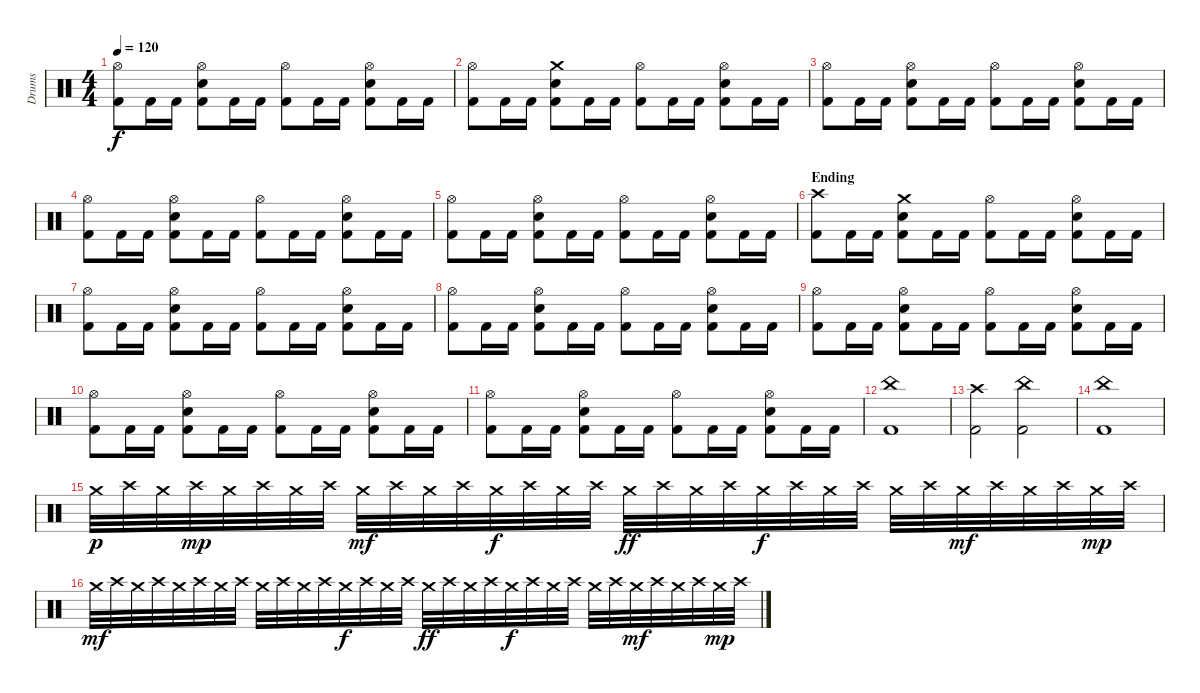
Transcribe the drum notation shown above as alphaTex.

\track ("Drums" "Drums") {instrument percussion}
\staff {score}
\articulation defaults
\ts (4 4)
\tempo 120
\clef neutral
\ks c
("Hi-Hat (open)" "Kick (hit) 2").8{dy f} "Kick (hit) 2".16 "Kick (hit) 2".16 ("Hi-Hat (open)" "Snare (hit) 2" "Kick (hit) 2").8 "Kick (hit) 2".16 "Kick (hit) 2".16 ("Hi-Hat (open)" "Kick (hit) 2").8 "Kick (hit) 2".16 "Kick (hit) 2".16 ("Hi-Hat (open)" "Snare (hit) 2" "Kick (hit) 2").8 "Kick (hit) 2".16 "Kick (hit) 2".16 |
("Hi-Hat (open)" "Kick (hit) 2").8 "Kick (hit) 2".16 "Kick (hit) 2".16 ("Crash medium (hit)" "Snare (hit) 2" "Kick (hit) 2").8 "Kick (hit) 2".16 "Kick (hit) 2".16 ("Hi-Hat (open)" "Kick (hit) 2").8 "Kick (hit) 2".16 "Kick (hit) 2".16 ("Hi-Hat (open)" "Snare (hit) 2" "Kick (hit) 2").8 "Kick (hit) 2".16 "Kick (hit) 2".16 |
("Hi-Hat (open)" "Kick (hit) 2").8 "Kick (hit) 2".16 "Kick (hit) 2".16 ("Hi-Hat (open)" "Snare (hit) 2" "Kick (hit) 2").8 "Kick (hit) 2".16 "Kick (hit) 2".16 ("Hi-Hat (open)" "Kick (hit) 2").8 "Kick (hit) 2".16 "Kick (hit) 2".16 ("Hi-Hat (open)" "Snare (hit) 2" "Kick (hit) 2").8 "Kick (hit) 2".16 "Kick (hit) 2".16 |
("Hi-Hat (open)" "Kick (hit) 2").8 "Kick (hit) 2".16 "Kick (hit) 2".16 ("Hi-Hat (open)" "Snare (hit) 2" "Kick (hit) 2").8 "Kick (hit) 2".16 "Kick (hit) 2".16 ("Hi-Hat (open)" "Kick (hit) 2").8 "Kick (hit) 2".16 "Kick (hit) 2".16 ("Hi-Hat (open)" "Snare (hit) 2" "Kick (hit) 2").8 "Kick (hit) 2".16 "Kick (hit) 2".16 |
("Hi-Hat (open)" "Kick (hit) 2").8 "Kick (hit) 2".16 "Kick (hit) 2".16 ("Hi-Hat (open)" "Snare (hit) 2" "Kick (hit) 2").8 "Kick (hit) 2".16 "Kick (hit) 2".16 ("Hi-Hat (open)" "Kick (hit) 2").8 "Kick (hit) 2".16 "Kick (hit) 2".16 ("Hi-Hat (open)" "Snare (hit) 2" "Kick (hit) 2").8 "Kick (hit) 2".16 "Kick (hit) 2".16 |
\section ("" "Ending")
("Crash high (hit)" "Kick (hit) 2").8 "Kick (hit) 2".16 "Kick (hit) 2".16 ("Crash medium (hit)" "Snare (hit) 2" "Kick (hit) 2").8 "Kick (hit) 2".16 "Kick (hit) 2".16 ("Hi-Hat (open)" "Kick (hit) 2").8 "Kick (hit) 2".16 "Kick (hit) 2".16 ("Hi-Hat (open)" "Snare (hit) 2" "Kick (hit) 2").8 "Kick (hit) 2".16 "Kick (hit) 2".16 |
("Hi-Hat (open)" "Kick (hit) 2").8 "Kick (hit) 2".16 "Kick (hit) 2".16 ("Hi-Hat (open)" "Snare (hit) 2" "Kick (hit) 2").8 "Kick (hit) 2".16 "Kick (hit) 2".16 ("Hi-Hat (open)" "Kick (hit) 2").8 "Kick (hit) 2".16 "Kick (hit) 2".16 ("Hi-Hat (open)" "Snare (hit) 2" "Kick (hit) 2").8 "Kick (hit) 2".16 "Kick (hit) 2".16 |
("Hi-Hat (open)" "Kick (hit) 2").8 "Kick (hit) 2".16 "Kick (hit) 2".16 ("Hi-Hat (open)" "Snare (hit) 2" "Kick (hit) 2").8 "Kick (hit) 2".16 "Kick (hit) 2".16 ("Hi-Hat (open)" "Kick (hit) 2").8 "Kick (hit) 2".16 "Kick (hit) 2".16 ("Hi-Hat (open)" "Snare (hit) 2" "Kick (hit) 2").8 "Kick (hit) 2".16 "Kick (hit) 2".16 |
("Hi-Hat (open)" "Kick (hit) 2").8 "Kick (hit) 2".16 "Kick (hit) 2".16 ("Hi-Hat (open)" "Snare (hit) 2" "Kick (hit) 2").8 "Kick (hit) 2".16 "Kick (hit) 2".16 ("Hi-Hat (open)" "Kick (hit) 2").8 "Kick (hit) 2".16 "Kick (hit) 2".16 ("Hi-Hat (open)" "Snare (hit) 2" "Kick (hit) 2").8 "Kick (hit) 2".16 "Kick (hit) 2".16 |
("Hi-Hat (open)" "Kick (hit) 2").8 "Kick (hit) 2".16 "Kick (hit) 2".16 ("Hi-Hat (open)" "Snare (hit) 2" "Kick (hit) 2").8 "Kick (hit) 2".16 "Kick (hit) 2".16 ("Hi-Hat (open)" "Kick (hit) 2").8 "Kick (hit) 2".16 "Kick (hit) 2".16 ("Hi-Hat (open)" "Snare (hit) 2" "Kick (hit) 2").8 "Kick (hit) 2".16 "Kick (hit) 2".16 |
("Hi-Hat (open)" "Kick (hit) 2").8 "Kick (hit) 2".16 "Kick (hit) 2".16 ("Hi-Hat (open)" "Snare (hit) 2" "Kick (hit) 2").8 "Kick (hit) 2".16 "Kick (hit) 2".16 ("Hi-Hat (open)" "Kick (hit) 2").8 "Kick (hit) 2".16 "Kick (hit) 2".16 ("Hi-Hat (open)" "Snare (hit) 2" "Kick (hit) 2").8 "Kick (hit) 2".16 "Kick (hit) 2".16 |
("China (hit)" "Kick (hit) 2").1 |
("Crash high (hit)" "Kick (hit) 2").2 ("China (hit)" "Kick (hit) 2").2 |
("China (hit)" "Kick (hit) 2").1 |
"Crash medium (hit)".32{dy p} "Crash high (hit)".32 "Crash medium (hit)".32 "Crash high (hit)".32{dy mp} "Crash medium (hit)".32 "Crash high (hit)".32 "Crash medium (hit)".32 "Crash high (hit)".32 "Crash medium (hit)".32{dy mf} "Crash high (hit)".32 "Crash medium (hit)".32 "Crash high (hit)".32 "Crash medium (hit)".32{dy f} "Crash high (hit)".32 "Crash medium (hit)".32 "Crash high (hit)".32 "Crash medium (hit)".32{dy ff} "Crash high (hit)".32 "Crash medium (hit)".32 "Crash high (hit)".32 "Crash medium (hit)".32{dy f} "Crash high (hit)".32 "Crash medium (hit)".32 "Crash high (hit)".32 "Crash medium (hit)".32 "Crash high (hit)".32 "Crash medium (hit)".32{dy mf} "Crash high (hit)".32 "Crash medium (hit)".32 "Crash high (hit)".32 "Crash medium (hit)".32{dy mp} "Crash high (hit)".32 |
"Crash medium (hit)".32{dy mf} "Crash high (hit)".32 "Crash medium (hit)".32 "Crash high (hit)".32 "Crash medium (hit)".32 "Crash high (hit)".32 "Crash medium (hit)".32 "Crash high (hit)".32 "Crash medium (hit)".32 "Crash high (hit)".32 "Crash medium (hit)".32 "Crash high (hit)".32 "Crash medium (hit)".32{dy f} "Crash high (hit)".32 "Crash medium (hit)".32 "Crash high (hit)".32 "Crash medium (hit)".32{dy ff} "Crash high (hit)".32 "Crash medium (hit)".32 "Crash high (hit)".32 "Crash medium (hit)".32{dy f} "Crash high (hit)".32 "Crash medium (hit)".32 "Crash high (hit)".32 "Crash medium (hit)".32 "Crash high (hit)".32 "Crash medium (hit)".32{dy mf} "Crash high (hit)".32 "Crash medium (hit)".32 "Crash high (hit)".32 "Crash medium (hit)".32{dy mp} "Crash high (hit)".32
